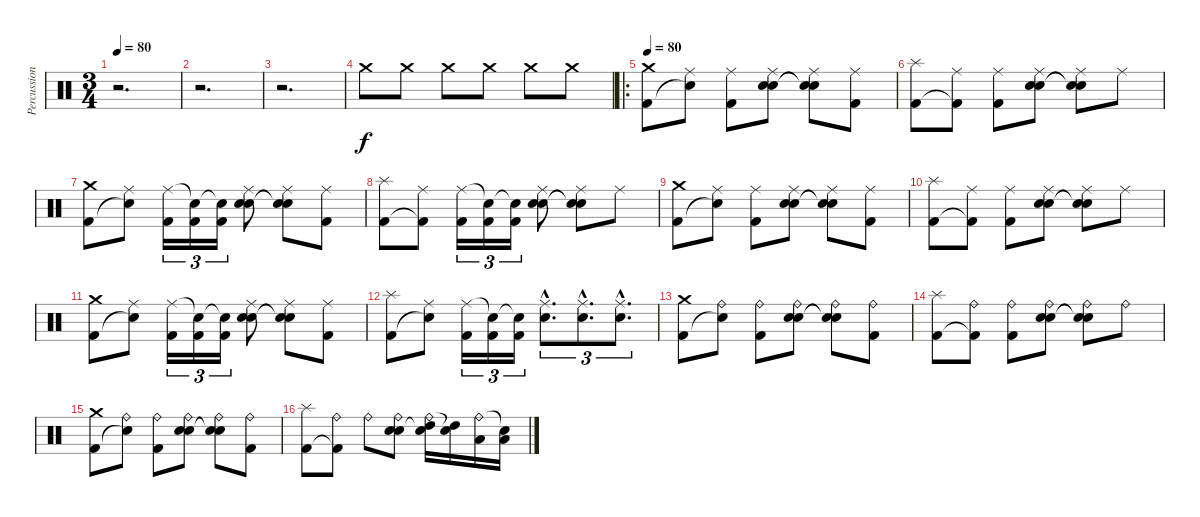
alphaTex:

\track ("Percussion" "Percussion") {instrument percussion}
\staff {score}
\articulation defaults
\ts (3 4)
\tempo 80
\clef neutral
\ks c
r.2{d dy f} |
r.2{d} |
r.2{d} |
"Crash medium (hit)".8 "Crash medium (hit)".8 "Crash medium (hit)".8 "Crash medium (hit)".8 "Crash medium (hit)".8 "Crash medium (hit)".8 |
\ro
\tempo 80
("Crash medium (hit)" "Kick (hit) 2").8 ("Ride (middle)" "Snare (hit)"{t}).8 ("Ride (middle)" "Kick (hit) 2").8 ("Ride (middle)" "Snare (hit) 2" "Snare (hit) 2").8 ("Ride (middle)" "Snare (hit)"{t} "Snare (hit)"{t}).8 ("Ride (middle)" "Kick (hit) 2").8 |
("Splash (hit)" "Kick (hit) 2").8 ("Ride (middle)" "Kick (hit) 2"{t}).8 ("Ride (middle)" "Kick (hit) 2").8 ("Ride (middle)" "Snare (hit) 2" "Snare (hit) 2").8 ("Ride (middle)" "Snare (hit)"{t} "Snare (hit)"{t}).8 "Ride (middle)".8 |
("Crash medium (hit)" "Kick (hit) 2").8 ("Ride (middle)" "Snare (hit)"{t}).8 ("Ride (middle)" "Kick (hit) 2").16{tu (3 2)} ("Snare (hit)"{t} "Kick (hit) 2").16{tu (3 2)} ("Snare (hit)"{t} "Kick (hit) 2").16{tu (3 2)} ("Ride (middle)" "Snare (hit) 2" "Snare (hit) 2").8 ("Ride (middle)" "Snare (hit)"{t} "Snare (hit)"{t}).8 ("Ride (middle)" "Kick (hit) 2").8 |
("Splash (hit)" "Kick (hit) 2").8 ("Ride (middle)" "Kick (hit) 2"{t}).8 ("Ride (middle)" "Kick (hit) 2").16{tu (3 2)} ("Snare (hit)"{t} "Kick (hit) 2").16{tu (3 2)} ("Snare (hit)"{t} "Kick (hit) 2").16{tu (3 2)} ("Ride (middle)" "Snare (hit) 2" "Snare (hit) 2").8 ("Ride (middle)" "Snare (hit)"{t} "Snare (hit)"{t}).8 "Ride (middle)".8 |
("Crash medium (hit)" "Kick (hit) 2").8 ("Ride (middle)" "Snare (hit)"{t}).8 ("Ride (middle)" "Kick (hit) 2").8 ("Ride (middle)" "Snare (hit) 2" "Snare (hit) 2").8 ("Ride (middle)" "Snare (hit)"{t} "Snare (hit)"{t}).8 ("Ride (middle)" "Kick (hit) 2").8 |
("Splash (hit)" "Kick (hit) 2").8 ("Ride (middle)" "Kick (hit) 2"{t}).8 ("Ride (middle)" "Kick (hit) 2").8 ("Ride (middle)" "Snare (hit) 2" "Snare (hit) 2").8 ("Ride (middle)" "Snare (hit)"{t} "Snare (hit)"{t}).8 "Ride (middle)".8 |
("Crash medium (hit)" "Kick (hit) 2").8 ("Ride (middle)" "Snare (hit)"{t}).8 ("Ride (middle)" "Kick (hit) 2").16{tu (3 2)} ("Snare (hit)"{t} "Kick (hit) 2").16{tu (3 2)} ("Snare (hit)"{t} "Kick (hit) 2").16{tu (3 2)} ("Ride (middle)" "Snare (hit) 2" "Snare (hit) 2").8 ("Ride (middle)" "Snare (hit)"{t} "Snare (hit)"{t}).8 ("Ride (middle)" "Kick (hit) 2").8 |
("Splash (hit)" "Kick (hit) 2").8 ("Ride (middle)" "Snare (hit)"{t}).8 ("Ride (middle)" "Kick (hit) 2").16{tu (3 2)} ("Snare (hit)"{t} "Kick (hit) 2").16{tu (3 2)} ("Snare (hit)"{t} "Kick (hit) 2").16{tu (3 2)} ("Ride (middle)"{hac} "Snare (hit) 2"{hac}).8{d tu (3 2)} ("Ride (middle)"{hac} "Snare (hit) 2"{hac}).8{d tu (3 2)} ("Ride (middle)"{hac} "Snare (hit) 2"{hac}).8{d tu (3 2)} |
("Crash medium (hit)" "Kick (hit) 2").8 ("Ride (bell)" "Snare (hit)"{t}).8 ("Ride (bell)" "Kick (hit) 2").8 ("Ride (bell)" "Snare (hit) 2" "Snare (hit) 2").8 ("Ride (bell)" "Snare (hit)"{t} "Snare (hit)"{t}).8 ("Ride (bell)" "Kick (hit) 2").8 |
("Splash (hit)" "Kick (hit) 2").8 ("Ride (bell)" "Kick (hit) 2"{t}).8 ("Ride (bell)" "Kick (hit) 2").8 ("Ride (bell)" "Snare (hit) 2" "Snare (hit) 2").8 ("Ride (bell)" "Snare (hit)"{t} "Snare (hit)"{t}).8 "Ride (bell)".8 |
("Crash medium (hit)" "Kick (hit) 2").8 ("Ride (bell)" "Snare (hit)"{t}).8 ("Ride (bell)" "Kick (hit) 2").8 ("Ride (bell)" "Snare (hit) 2" "Snare (hit) 2").8 ("Ride (bell)" "Snare (hit)"{t} "Snare (hit)"{t}).8 ("Ride (bell)" "Kick (hit) 2").8 |
("Splash (hit)" "Kick (hit) 2").8 ("Ride (bell)" "Kick (hit) 2"{t}).8 "Ride (bell)".8 ("Ride (bell)" "Snare (hit) 2" "Snare (hit) 2").8 ("Ride (bell)" "High Tom (hit)" "Snare (hit)"{t}).16 ("Snare (hit)"{t} "High Tom (hit)").16 ("Ride (bell)" "Low Tom (hit)").16 ("Snare (hit)"{t} "Low Tom (hit)").16
